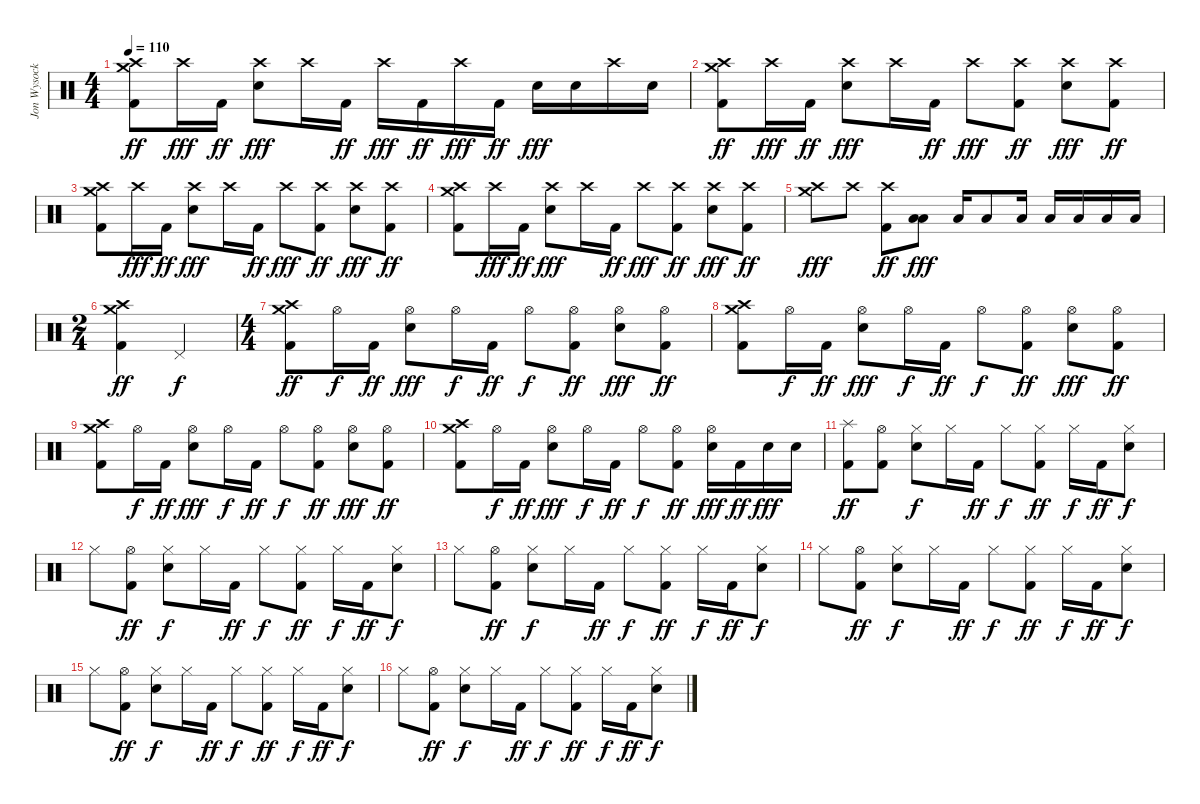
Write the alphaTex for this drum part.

\track ("Jon Wysocki" "Jon Wysock") {instrument percussion}
\staff {score}
\articulation defaults
\ts (4 4)
\tempo 110
\clef neutral
\ks c
("Crash medium (hit)" "Crash high (hit)" "Kick (hit) 2").8{dy ff} "Crash high (hit)".16{dy fff} "Kick (hit) 2".16{dy ff} ("Crash high (hit)" "Electric Snare (hit)").8{dy fff} "Crash high (hit)".16 "Kick (hit) 2".16{dy ff} "Crash high (hit)".16{dy fff} "Kick (hit) 2".16{dy ff} "Crash high (hit)".16{dy fff} "Kick (hit) 2".16{dy ff} "Electric Snare (hit)".16{dy fff} "Electric Snare (hit)".16 "Crash high (hit)".16 "Electric Snare (hit)".16 |
("Crash medium (hit)" "Crash high (hit)" "Kick (hit) 2").8{dy ff} "Crash high (hit)".16{dy fff} "Kick (hit) 2".16{dy ff} ("Crash high (hit)" "Electric Snare (hit)").8{dy fff} "Crash high (hit)".16 "Kick (hit) 2".16{dy ff} "Crash high (hit)".8{dy fff} ("Crash high (hit)" "Kick (hit) 2").8{dy ff} ("Crash high (hit)" "Electric Snare (hit)").8{dy fff} ("Crash high (hit)" "Kick (hit) 2").8{dy ff} |
("Crash medium (hit)" "Crash high (hit)" "Kick (hit) 2").8 "Crash high (hit)".16{dy fff} "Kick (hit) 2".16{dy ff} ("Crash high (hit)" "Electric Snare (hit)").8{dy fff} "Crash high (hit)".16 "Kick (hit) 2".16{dy ff} "Crash high (hit)".8{dy fff} ("Crash high (hit)" "Kick (hit) 2").8{dy ff} ("Crash high (hit)" "Electric Snare (hit)").8{dy fff} ("Crash high (hit)" "Kick (hit) 2").8{dy ff} |
("Crash medium (hit)" "Crash high (hit)" "Kick (hit) 2").8 "Crash high (hit)".16{dy fff} "Kick (hit) 2".16{dy ff} ("Crash high (hit)" "Electric Snare (hit)").8{dy fff} "Crash high (hit)".16 "Kick (hit) 2".16{dy ff} "Crash high (hit)".8{dy fff} ("Crash high (hit)" "Kick (hit) 2").8{dy ff} ("Crash high (hit)" "Electric Snare (hit)").8{dy fff} ("Crash high (hit)" "Kick (hit) 2").8{dy ff} |
("Crash medium (hit)" "Crash high (hit)").8{dy fff} "Crash high (hit)".8 ("Crash high (hit)" "Kick (hit) 2").8{dy ff} ("Low Tom (hit)" "Low Floor Tom (hit)").8{dy fff} "Low Floor Tom (hit)".16 "Low Tom (hit)".8 "Low Tom (hit)".16 "Low Floor Tom (hit)".16 "Low Floor Tom (hit)".16 "Low Floor Tom (hit)".16 "Low Floor Tom (hit)".16 |
\ts (2 4)
("Crash medium (hit)" "Crash high (hit)" "Kick (hit) 2").4{dy ff} "Pedal Hi-Hat (hit)".4{dy f} |
\ts (4 4)
("Crash medium (hit)" "Crash high (hit)" "Kick (hit) 2").8{dy ff} "Hi-Hat (open)".16{dy f} "Kick (hit) 2".16{dy ff} ("Hi-Hat (open)" "Electric Snare (hit)").8{dy fff} "Hi-Hat (open)".16{dy f} "Kick (hit) 2".16{dy ff} "Hi-Hat (open)".8{dy f} ("Hi-Hat (open)" "Kick (hit) 2").8{dy ff} ("Hi-Hat (open)" "Electric Snare (hit)").8{dy fff} ("Hi-Hat (open)" "Kick (hit) 2").8{dy ff} |
("Crash medium (hit)" "Crash high (hit)" "Kick (hit) 2").8 "Hi-Hat (open)".16{dy f} "Kick (hit) 2".16{dy ff} ("Hi-Hat (open)" "Electric Snare (hit)").8{dy fff} "Hi-Hat (open)".16{dy f} "Kick (hit) 2".16{dy ff} "Hi-Hat (open)".8{dy f} ("Hi-Hat (open)" "Kick (hit) 2").8{dy ff} ("Hi-Hat (open)" "Electric Snare (hit)").8{dy fff} ("Hi-Hat (open)" "Kick (hit) 2").8{dy ff} |
("Crash medium (hit)" "Crash high (hit)" "Kick (hit) 2").8 "Hi-Hat (open)".16{dy f} "Kick (hit) 2".16{dy ff} ("Hi-Hat (open)" "Electric Snare (hit)").8{dy fff} "Hi-Hat (open)".16{dy f} "Kick (hit) 2".16{dy ff} "Hi-Hat (open)".8{dy f} ("Hi-Hat (open)" "Kick (hit) 2").8{dy ff} ("Hi-Hat (open)" "Electric Snare (hit)").8{dy fff} ("Hi-Hat (open)" "Kick (hit) 2").8{dy ff} |
("Crash medium (hit)" "Crash high (hit)" "Kick (hit) 2").8 "Hi-Hat (open)".16{dy f} "Kick (hit) 2".16{dy ff} ("Hi-Hat (open)" "Electric Snare (hit)").8{dy fff} "Hi-Hat (open)".16{dy f} "Kick (hit) 2".16{dy ff} "Hi-Hat (open)".8{dy f} ("Hi-Hat (open)" "Kick (hit) 2").8{dy ff} ("Hi-Hat (open)" "Electric Snare (hit)").16{dy fff} "Kick (hit) 2".16{dy ff} "Electric Snare (hit)".16{dy fff} "Electric Snare (hit)".16 |
("Splash (hit)" "Kick (hit) 2").8{dy ff} ("Hi-Hat (open)" "Kick (hit) 2").8 ("Hi-Hat (closed)" "Electric Snare (hit)").8{dy f} "Hi-Hat (closed)".16 "Kick (hit) 2".16{dy ff} "Hi-Hat (closed)".8{dy f} ("Hi-Hat (closed)" "Kick (hit) 2").8{dy ff} "Hi-Hat (closed)".16{dy f} "Kick (hit) 2".16{dy ff} ("Hi-Hat (closed)" "Electric Snare (hit)").8{dy f} |
"Hi-Hat (closed)".8 ("Hi-Hat (open)" "Kick (hit) 2").8{dy ff} ("Hi-Hat (closed)" "Electric Snare (hit)").8{dy f} "Hi-Hat (closed)".16 "Kick (hit) 2".16{dy ff} "Hi-Hat (closed)".8{dy f} ("Hi-Hat (closed)" "Kick (hit) 2").8{dy ff} "Hi-Hat (closed)".16{dy f} "Kick (hit) 2".16{dy ff} ("Hi-Hat (closed)" "Electric Snare (hit)").8{dy f} |
"Hi-Hat (closed)".8 ("Hi-Hat (open)" "Kick (hit) 2").8{dy ff} ("Hi-Hat (closed)" "Electric Snare (hit)").8{dy f} "Hi-Hat (closed)".16 "Kick (hit) 2".16{dy ff} "Hi-Hat (closed)".8{dy f} ("Hi-Hat (closed)" "Kick (hit) 2").8{dy ff} "Hi-Hat (closed)".16{dy f} "Kick (hit) 2".16{dy ff} ("Hi-Hat (closed)" "Electric Snare (hit)").8{dy f} |
"Hi-Hat (closed)".8 ("Hi-Hat (open)" "Kick (hit) 2").8{dy ff} ("Hi-Hat (closed)" "Electric Snare (hit)").8{dy f} "Hi-Hat (closed)".16 "Kick (hit) 2".16{dy ff} "Hi-Hat (closed)".8{dy f} ("Hi-Hat (closed)" "Kick (hit) 2").8{dy ff} "Hi-Hat (closed)".16{dy f} "Kick (hit) 2".16{dy ff} ("Hi-Hat (closed)" "Electric Snare (hit)").8{dy f} |
"Hi-Hat (closed)".8 ("Hi-Hat (open)" "Kick (hit) 2").8{dy ff} ("Hi-Hat (closed)" "Electric Snare (hit)").8{dy f} "Hi-Hat (closed)".16 "Kick (hit) 2".16{dy ff} "Hi-Hat (closed)".8{dy f} ("Hi-Hat (closed)" "Kick (hit) 2").8{dy ff} "Hi-Hat (closed)".16{dy f} "Kick (hit) 2".16{dy ff} ("Hi-Hat (closed)" "Electric Snare (hit)").8{dy f} |
"Hi-Hat (closed)".8 ("Hi-Hat (open)" "Kick (hit) 2").8{dy ff} ("Hi-Hat (closed)" "Electric Snare (hit)").8{dy f} "Hi-Hat (closed)".16 "Kick (hit) 2".16{dy ff} "Hi-Hat (closed)".8{dy f} ("Hi-Hat (closed)" "Kick (hit) 2").8{dy ff} "Hi-Hat (closed)".16{dy f} "Kick (hit) 2".16{dy ff} ("Hi-Hat (closed)" "Electric Snare (hit)").8{dy f}
